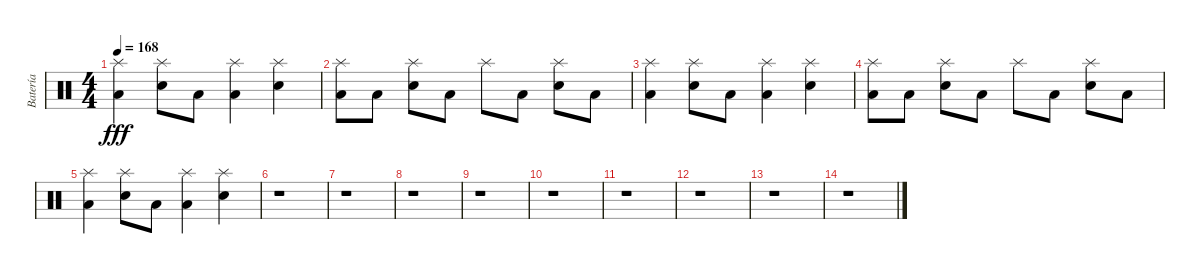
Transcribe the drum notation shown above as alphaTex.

\track ("Batería" "Batería") {instrument percussion}
\staff {score}
\articulation defaults
\ts (4 4)
\tempo 168
\clef neutral
\ks c
("Splash (hit)" "Low Floor Tom (hit)").4{dy fff} ("Splash (hit)" "Electric Snare (hit)").8 "Low Floor Tom (hit)".8 ("Splash (hit)" "Low Floor Tom (hit)").4 ("Splash (hit)" "Electric Snare (hit)").4 |
("Splash (hit)" "Low Floor Tom (hit)").8 "Low Floor Tom (hit)".8 ("Splash (hit)" "Electric Snare (hit)").8 "Low Floor Tom (hit)".8 "Splash (hit)".8 "Low Floor Tom (hit)".8 ("Splash (hit)" "Electric Snare (hit)").8 "Low Floor Tom (hit)".8 |
("Splash (hit)" "Low Floor Tom (hit)").4 ("Splash (hit)" "Electric Snare (hit)").8 "Low Floor Tom (hit)".8 ("Splash (hit)" "Low Floor Tom (hit)").4 ("Splash (hit)" "Electric Snare (hit)").4 |
("Splash (hit)" "Low Floor Tom (hit)").8 "Low Floor Tom (hit)".8 ("Splash (hit)" "Electric Snare (hit)").8 "Low Floor Tom (hit)".8 "Splash (hit)".8 "Low Floor Tom (hit)".8 ("Splash (hit)" "Electric Snare (hit)").8 "Low Floor Tom (hit)".8 |
("Splash (hit)" "Low Floor Tom (hit)").4 ("Splash (hit)" "Electric Snare (hit)").8 "Low Floor Tom (hit)".8 ("Splash (hit)" "Low Floor Tom (hit)").4 ("Splash (hit)" "Electric Snare (hit)").4 |
r.1 |
r.1 |
r.1 |
r.1 |
r.1 |
r.1 |
r.1 |
r.1 |
r.1
